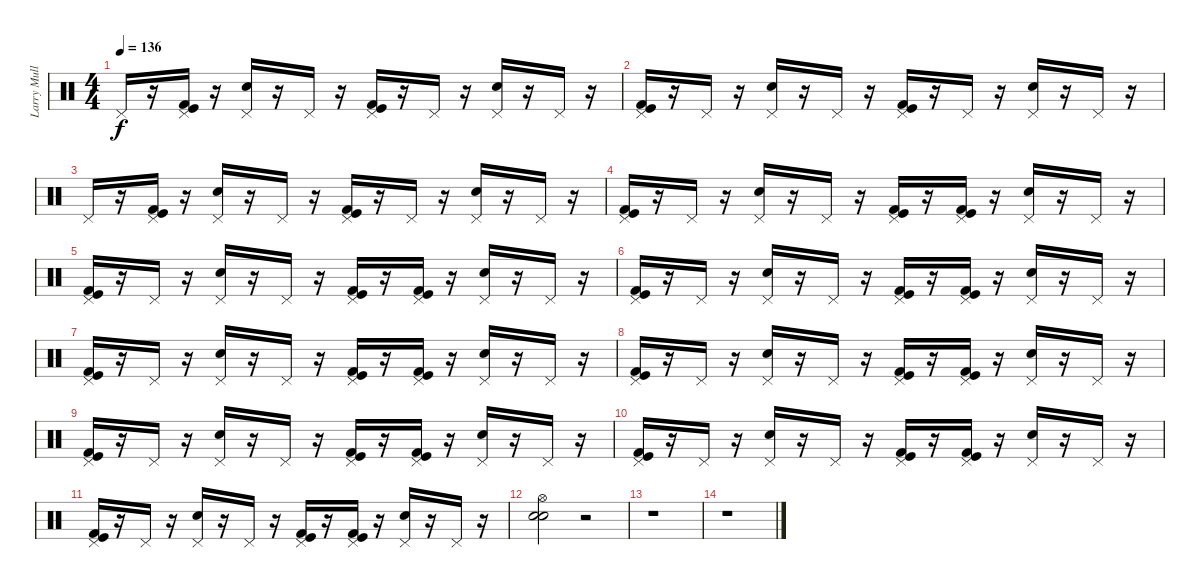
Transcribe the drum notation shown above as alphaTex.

\track ("Larry Mullen Jr." "Larry Mull") {instrument percussion}
\staff {score}
\articulation defaults
\ts (4 4)
\tempo 136
\clef neutral
\ks c "Pedal Hi-Hat (hit)".16{dy f}
r.16 ("Kick (hit) 2" "Kick (hit)" "Pedal Hi-Hat (hit)").16 r.16 ("Snare (hit) 2" "Pedal Hi-Hat (hit)").16 r.16 "Pedal Hi-Hat (hit)".16 r.16 ("Kick (hit) 2" "Kick (hit)" "Pedal Hi-Hat (hit)").16 r.16 "Pedal Hi-Hat (hit)".16 r.16 ("Snare (hit) 2" "Pedal Hi-Hat (hit)").16 r.16 "Pedal Hi-Hat (hit)".16 r.16 |
("Kick (hit) 2" "Kick (hit)" "Pedal Hi-Hat (hit)").16 r.16 "Pedal Hi-Hat (hit)".16 r.16 ("Snare (hit) 2" "Pedal Hi-Hat (hit)").16 r.16 "Pedal Hi-Hat (hit)".16 r.16 ("Kick (hit) 2" "Kick (hit)" "Pedal Hi-Hat (hit)").16 r.16 "Pedal Hi-Hat (hit)".16 r.16 ("Snare (hit) 2" "Pedal Hi-Hat (hit)").16 r.16 "Pedal Hi-Hat (hit)".16 r.16 |
"Pedal Hi-Hat (hit)".16 r.16 ("Kick (hit) 2" "Kick (hit)" "Pedal Hi-Hat (hit)").16 r.16 ("Snare (hit) 2" "Pedal Hi-Hat (hit)").16 r.16 "Pedal Hi-Hat (hit)".16 r.16 ("Kick (hit) 2" "Kick (hit)" "Pedal Hi-Hat (hit)").16 r.16 "Pedal Hi-Hat (hit)".16 r.16 ("Snare (hit) 2" "Pedal Hi-Hat (hit)").16 r.16 "Pedal Hi-Hat (hit)".16 r.16 |
("Kick (hit) 2" "Kick (hit)" "Pedal Hi-Hat (hit)").16 r.16 "Pedal Hi-Hat (hit)".16 r.16 ("Electric Snare (hit)" "Pedal Hi-Hat (hit)").16 r.16 "Pedal Hi-Hat (hit)".16 r.16 ("Kick (hit) 2" "Kick (hit)" "Pedal Hi-Hat (hit)").16 r.16 ("Kick (hit) 2" "Kick (hit)" "Pedal Hi-Hat (hit)").16 r.16 ("Electric Snare (hit)" "Pedal Hi-Hat (hit)").16 r.16 "Pedal Hi-Hat (hit)".16 r.16 |
("Kick (hit) 2" "Kick (hit)" "Pedal Hi-Hat (hit)").16 r.16 "Pedal Hi-Hat (hit)".16 r.16 ("Electric Snare (hit)" "Pedal Hi-Hat (hit)").16 r.16 "Pedal Hi-Hat (hit)".16 r.16 ("Kick (hit) 2" "Kick (hit)" "Pedal Hi-Hat (hit)").16 r.16 ("Kick (hit) 2" "Kick (hit)" "Pedal Hi-Hat (hit)").16 r.16 ("Electric Snare (hit)" "Pedal Hi-Hat (hit)").16 r.16 "Pedal Hi-Hat (hit)".16 r.16 |
("Kick (hit) 2" "Kick (hit)" "Pedal Hi-Hat (hit)").16 r.16 "Pedal Hi-Hat (hit)".16 r.16 ("Electric Snare (hit)" "Pedal Hi-Hat (hit)").16 r.16 "Pedal Hi-Hat (hit)".16 r.16 ("Kick (hit) 2" "Kick (hit)" "Pedal Hi-Hat (hit)").16 r.16 ("Kick (hit) 2" "Kick (hit)" "Pedal Hi-Hat (hit)").16 r.16 ("Electric Snare (hit)" "Pedal Hi-Hat (hit)").16 r.16 "Pedal Hi-Hat (hit)".16 r.16 |
("Kick (hit) 2" "Kick (hit)" "Pedal Hi-Hat (hit)").16 r.16 "Pedal Hi-Hat (hit)".16 r.16 ("Electric Snare (hit)" "Pedal Hi-Hat (hit)").16 r.16 "Pedal Hi-Hat (hit)".16 r.16 ("Kick (hit) 2" "Kick (hit)" "Pedal Hi-Hat (hit)").16 r.16 ("Kick (hit) 2" "Kick (hit)" "Pedal Hi-Hat (hit)").16 r.16 ("Electric Snare (hit)" "Pedal Hi-Hat (hit)").16 r.16 "Pedal Hi-Hat (hit)".16 r.16 |
("Kick (hit) 2" "Kick (hit)" "Pedal Hi-Hat (hit)").16 r.16 "Pedal Hi-Hat (hit)".16 r.16 ("Electric Snare (hit)" "Pedal Hi-Hat (hit)").16 r.16 "Pedal Hi-Hat (hit)".16 r.16 ("Kick (hit) 2" "Kick (hit)" "Pedal Hi-Hat (hit)").16 r.16 ("Kick (hit) 2" "Kick (hit)" "Pedal Hi-Hat (hit)").16 r.16 ("Electric Snare (hit)" "Pedal Hi-Hat (hit)").16 r.16 "Pedal Hi-Hat (hit)".16 r.16 |
("Kick (hit) 2" "Kick (hit)" "Pedal Hi-Hat (hit)").16 r.16 "Pedal Hi-Hat (hit)".16 r.16 ("Electric Snare (hit)" "Pedal Hi-Hat (hit)").16 r.16 "Pedal Hi-Hat (hit)".16 r.16 ("Kick (hit) 2" "Kick (hit)" "Pedal Hi-Hat (hit)").16 r.16 ("Kick (hit) 2" "Kick (hit)" "Pedal Hi-Hat (hit)").16 r.16 ("Electric Snare (hit)" "Pedal Hi-Hat (hit)").16 r.16 "Pedal Hi-Hat (hit)".16 r.16 |
("Kick (hit) 2" "Kick (hit)" "Pedal Hi-Hat (hit)").16 r.16 "Pedal Hi-Hat (hit)".16 r.16 ("Electric Snare (hit)" "Pedal Hi-Hat (hit)").16 r.16 "Pedal Hi-Hat (hit)".16 r.16 ("Kick (hit) 2" "Kick (hit)" "Pedal Hi-Hat (hit)").16 r.16 ("Kick (hit) 2" "Kick (hit)" "Pedal Hi-Hat (hit)").16 r.16 ("Electric Snare (hit)" "Pedal Hi-Hat (hit)").16 r.16 "Pedal Hi-Hat (hit)".16 r.16 |
("Kick (hit) 2" "Kick (hit)" "Pedal Hi-Hat (hit)").16 r.16 "Pedal Hi-Hat (hit)".16 r.16 ("Electric Snare (hit)" "Pedal Hi-Hat (hit)").16 r.16 "Pedal Hi-Hat (hit)".16 r.16 ("Kick (hit) 2" "Kick (hit)" "Pedal Hi-Hat (hit)").16 r.16 ("Kick (hit) 2" "Kick (hit)" "Pedal Hi-Hat (hit)").16 r.16 ("Electric Snare (hit)" "Pedal Hi-Hat (hit)").16 r.16 "Pedal Hi-Hat (hit)".16 r.16 |
("Snare (hit) 2" "Electric Snare (hit)" "Hi-Hat (open)").2 r.2 |
r.1 |
r.1
